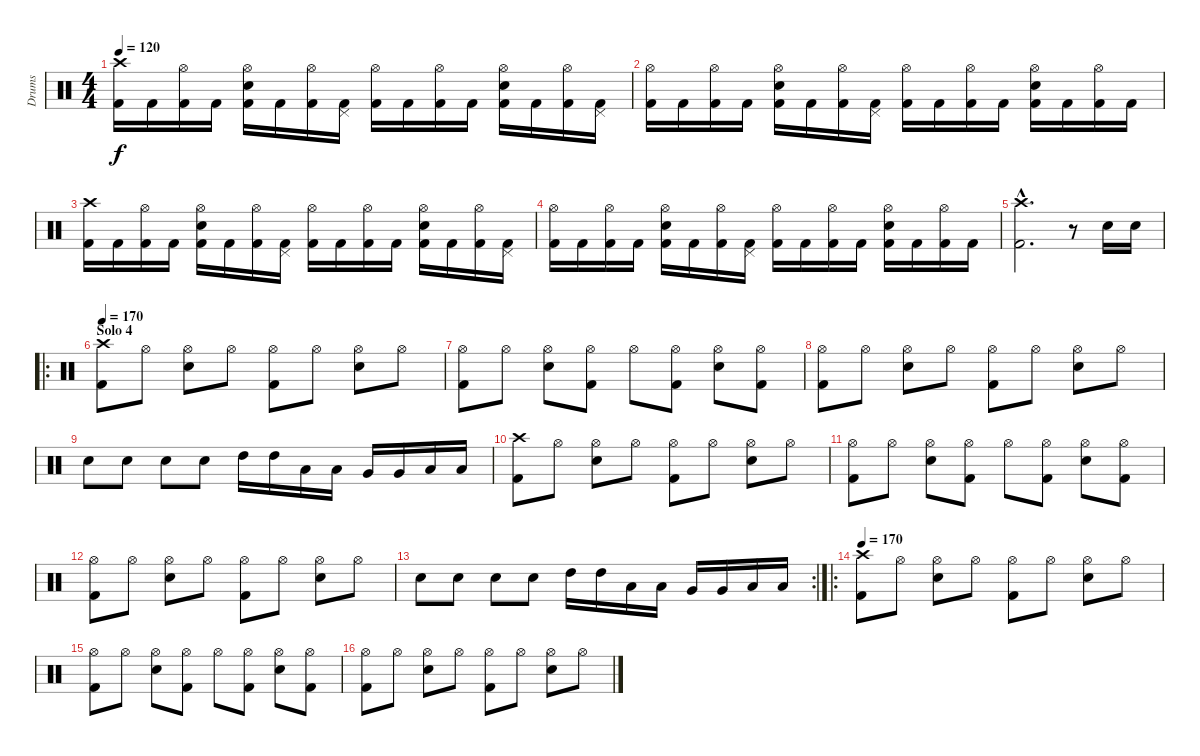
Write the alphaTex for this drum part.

\track ("Drums" "Drums") {instrument percussion}
\staff {score}
\articulation defaults
\ts (4 4)
\tempo 120
\clef neutral
\ks c
("Crash high (hit)" "Kick (hit) 2").16{dy f} "Kick (hit) 2".16 ("Hi-Hat (open)" "Kick (hit) 2").16 "Kick (hit) 2".16 ("Hi-Hat (open)" "Snare (hit) 2" "Kick (hit) 2").16 "Kick (hit) 2".16 ("Hi-Hat (open)" "Kick (hit) 2").16 ("Pedal Hi-Hat (hit)" "Kick (hit) 2").16 ("Hi-Hat (open)" "Kick (hit) 2").16 "Kick (hit) 2".16 ("Hi-Hat (open)" "Kick (hit) 2").16 "Kick (hit) 2".16 ("Hi-Hat (open)" "Snare (hit) 2" "Kick (hit) 2").16 "Kick (hit) 2".16 ("Hi-Hat (open)" "Kick (hit) 2").16 ("Pedal Hi-Hat (hit)" "Kick (hit) 2").16 |
("Hi-Hat (open)" "Kick (hit) 2").16 "Kick (hit) 2".16 ("Hi-Hat (open)" "Kick (hit) 2").16 "Kick (hit) 2".16 ("Hi-Hat (open)" "Snare (hit) 2" "Kick (hit) 2").16 "Kick (hit) 2".16 ("Hi-Hat (open)" "Kick (hit) 2").16 ("Pedal Hi-Hat (hit)" "Kick (hit) 2").16 ("Hi-Hat (open)" "Kick (hit) 2").16 "Kick (hit) 2".16 ("Hi-Hat (open)" "Kick (hit) 2").16 "Kick (hit) 2".16 ("Hi-Hat (open)" "Snare (hit) 2" "Kick (hit) 2").16 "Kick (hit) 2".16 ("Hi-Hat (open)" "Kick (hit) 2").16 "Kick (hit) 2".16 |
("Crash high (hit)" "Kick (hit) 2").16 "Kick (hit) 2".16 ("Hi-Hat (open)" "Kick (hit) 2").16 "Kick (hit) 2".16 ("Hi-Hat (open)" "Snare (hit) 2" "Kick (hit) 2").16 "Kick (hit) 2".16 ("Hi-Hat (open)" "Kick (hit) 2").16 ("Pedal Hi-Hat (hit)" "Kick (hit) 2").16 ("Hi-Hat (open)" "Kick (hit) 2").16 "Kick (hit) 2".16 ("Hi-Hat (open)" "Kick (hit) 2").16 "Kick (hit) 2".16 ("Hi-Hat (open)" "Snare (hit) 2" "Kick (hit) 2").16 "Kick (hit) 2".16 ("Hi-Hat (open)" "Kick (hit) 2").16 ("Pedal Hi-Hat (hit)" "Kick (hit) 2").16 |
("Hi-Hat (open)" "Kick (hit) 2").16 "Kick (hit) 2".16 ("Hi-Hat (open)" "Kick (hit) 2").16 "Kick (hit) 2".16 ("Hi-Hat (open)" "Snare (hit) 2" "Kick (hit) 2").16 "Kick (hit) 2".16 ("Hi-Hat (open)" "Kick (hit) 2").16 ("Pedal Hi-Hat (hit)" "Kick (hit) 2").16 ("Hi-Hat (open)" "Kick (hit) 2").16 "Kick (hit) 2".16 ("Hi-Hat (open)" "Kick (hit) 2").16 "Kick (hit) 2".16 ("Hi-Hat (open)" "Snare (hit) 2" "Kick (hit) 2").16 "Kick (hit) 2".16 ("Hi-Hat (open)" "Kick (hit) 2").16 "Kick (hit) 2".16 |
("Crash high (hit)"{hac} "Kick (hit) 2"{hac}).2{d} r.8 "Electric Snare (hit)".16 "Electric Snare (hit)".16 |
\ro
\section ("" "Solo 4")
\tempo 170
("Crash high (hit)" "Kick (hit) 2").8 "Hi-Hat (open)".8 ("Hi-Hat (open)" "Snare (hit) 2").8 "Hi-Hat (open)".8 ("Hi-Hat (open)" "Kick (hit) 2").8 "Hi-Hat (open)".8 ("Hi-Hat (open)" "Snare (hit) 2").8 "Hi-Hat (open)".8 |
("Hi-Hat (open)" "Kick (hit) 2").8 "Hi-Hat (open)".8 ("Hi-Hat (open)" "Snare (hit) 2").8 ("Hi-Hat (open)" "Kick (hit) 2").8 "Hi-Hat (open)".8 ("Hi-Hat (open)" "Kick (hit) 2").8 ("Hi-Hat (open)" "Snare (hit) 2").8 ("Hi-Hat (open)" "Kick (hit) 2").8 |
("Hi-Hat (open)" "Kick (hit) 2").8 "Hi-Hat (open)".8 ("Hi-Hat (open)" "Snare (hit) 2").8 "Hi-Hat (open)".8 ("Hi-Hat (open)" "Kick (hit) 2").8 "Hi-Hat (open)".8 ("Hi-Hat (open)" "Snare (hit) 2").8 "Hi-Hat (open)".8 |
"Snare (hit) 2".8 "Snare (hit) 2".8 "Snare (hit) 2".8 "Snare (hit) 2".8 "High Tom (hit)".16 "High Tom (hit)".16 "Low Tom (hit)".16 "Low Tom (hit)".16 "Very Low Tom (hit)".16 "Very Low Tom (hit)".16 "Low Floor Tom (hit)".16 "Low Floor Tom (hit)".16 |
("Crash high (hit)" "Kick (hit) 2").8 "Hi-Hat (open)".8 ("Hi-Hat (open)" "Snare (hit) 2").8 "Hi-Hat (open)".8 ("Hi-Hat (open)" "Kick (hit) 2").8 "Hi-Hat (open)".8 ("Hi-Hat (open)" "Snare (hit) 2").8 "Hi-Hat (open)".8 |
("Hi-Hat (open)" "Kick (hit) 2").8 "Hi-Hat (open)".8 ("Hi-Hat (open)" "Snare (hit) 2").8 ("Hi-Hat (open)" "Kick (hit) 2").8 "Hi-Hat (open)".8 ("Hi-Hat (open)" "Kick (hit) 2").8 ("Hi-Hat (open)" "Snare (hit) 2").8 ("Hi-Hat (open)" "Kick (hit) 2").8 |
("Hi-Hat (open)" "Kick (hit) 2").8 "Hi-Hat (open)".8 ("Hi-Hat (open)" "Snare (hit) 2").8 "Hi-Hat (open)".8 ("Hi-Hat (open)" "Kick (hit) 2").8 "Hi-Hat (open)".8 ("Hi-Hat (open)" "Snare (hit) 2").8 "Hi-Hat (open)".8 |
\rc 2 "Snare (hit) 2".8 "Snare (hit) 2".8 "Snare (hit) 2".8 "Snare (hit) 2".8 "High Tom (hit)".16 "High Tom (hit)".16 "Low Tom (hit)".16 "Low Tom (hit)".16 "Very Low Tom (hit)".16 "Very Low Tom (hit)".16 "Low Floor Tom (hit)".16 "Low Floor Tom (hit)".16
|
\ro
\tempo 170
("Crash high (hit)" "Kick (hit) 2").8 "Hi-Hat (open)".8 ("Hi-Hat (open)" "Snare (hit) 2").8 "Hi-Hat (open)".8 ("Hi-Hat (open)" "Kick (hit) 2").8 "Hi-Hat (open)".8 ("Hi-Hat (open)" "Snare (hit) 2").8 "Hi-Hat (open)".8 |
("Hi-Hat (open)" "Kick (hit) 2").8 "Hi-Hat (open)".8 ("Hi-Hat (open)" "Snare (hit) 2").8 ("Hi-Hat (open)" "Kick (hit) 2").8 "Hi-Hat (open)".8 ("Hi-Hat (open)" "Kick (hit) 2").8 ("Hi-Hat (open)" "Snare (hit) 2").8 ("Hi-Hat (open)" "Kick (hit) 2").8 |
("Hi-Hat (open)" "Kick (hit) 2").8 "Hi-Hat (open)".8 ("Hi-Hat (open)" "Snare (hit) 2").8 "Hi-Hat (open)".8 ("Hi-Hat (open)" "Kick (hit) 2").8 "Hi-Hat (open)".8 ("Hi-Hat (open)" "Snare (hit) 2").8 "Hi-Hat (open)".8
